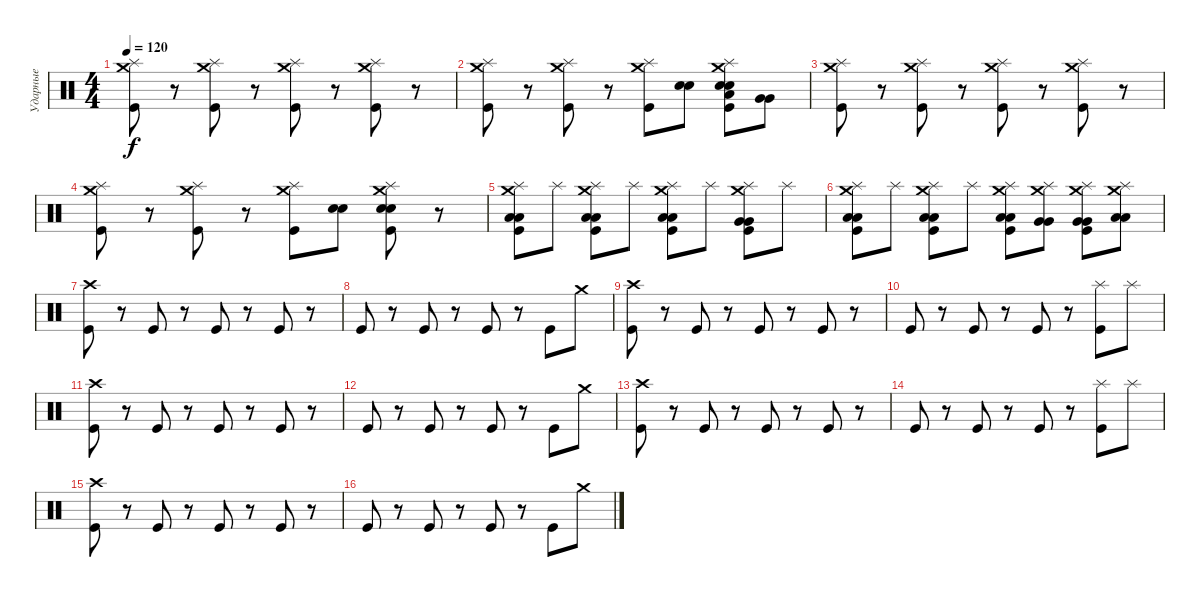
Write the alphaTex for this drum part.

\track ("Ударные" "Ударные") {instrument percussion}
\staff {score}
\articulation defaults
\ts (4 4)
\tempo 120
\clef neutral
\ks c
("Crash medium (hit)" "Splash (hit)" "Kick (hit)").8{dy f} r.8 ("Crash medium (hit)" "Splash (hit)" "Kick (hit)").8 r.8 ("Crash medium (hit)" "Splash (hit)" "Kick (hit)").8 r.8 ("Crash medium (hit)" "Splash (hit)" "Kick (hit)").8 r.8 |
("Crash medium (hit)" "Splash (hit)" "Kick (hit)").8 r.8 ("Crash medium (hit)" "Splash (hit)" "Kick (hit)").8 r.8 ("Crash medium (hit)" "Splash (hit)" "Kick (hit)").8 ("Snare (hit) 2" "Snare (hit) 2").8 ("Crash medium (hit)" "Splash (hit)" "Electric Snare (hit)" "Electric Snare (hit)" "Low Floor Tom (hit)" "Kick (hit)").8 ("Very Low Tom (hit)" "Very Low Tom (hit)").8 |
("Crash medium (hit)" "Splash (hit)" "Kick (hit)").8 r.8 ("Crash medium (hit)" "Splash (hit)" "Kick (hit)").8 r.8 ("Crash medium (hit)" "Splash (hit)" "Kick (hit)").8 r.8 ("Crash medium (hit)" "Splash (hit)" "Kick (hit)").8 r.8 |
("Crash medium (hit)" "Splash (hit)" "Kick (hit)").8 r.8 ("Crash medium (hit)" "Splash (hit)" "Kick (hit)").8 r.8 ("Crash medium (hit)" "Splash (hit)" "Kick (hit)").8 ("Snare (hit) 2" "Snare (hit) 2").8 ("Crash medium (hit)" "Splash (hit)" "Electric Snare (hit)" "Electric Snare (hit)" "Kick (hit)").8 r.8 |
("Splash (hit)" "Crash medium (hit)" "Low Floor Tom (hit)" "Low Floor Tom (hit)" "Kick (hit)").8 "Splash (hit)".8 ("Splash (hit)" "Crash medium (hit)" "Low Floor Tom (hit)" "Low Floor Tom (hit)" "Kick (hit)").8 "Splash (hit)".8 ("Splash (hit)" "Crash medium (hit)" "Low Floor Tom (hit)" "Low Floor Tom (hit)" "Kick (hit)").8 "Splash (hit)".8 ("Splash (hit)" "Crash medium (hit)" "Very Low Tom (hit)" "Very Low Tom (hit)" "Kick (hit)").8 "Splash (hit)".8 |
("Splash (hit)" "Crash medium (hit)" "Low Floor Tom (hit)" "Low Floor Tom (hit)" "Kick (hit)").8 "Splash (hit)".8 ("Splash (hit)" "Crash medium (hit)" "Low Floor Tom (hit)" "Low Floor Tom (hit)" "Kick (hit)").8 "Splash (hit)".8 ("Splash (hit)" "Crash medium (hit)" "Low Floor Tom (hit)" "Low Floor Tom (hit)" "Kick (hit)").8 ("Splash (hit)" "Crash medium (hit)" "Very Low Tom (hit)" "Very Low Tom (hit)").8 ("Splash (hit)" "Crash medium (hit)" "Very Low Tom (hit)" "Very Low Tom (hit)" "Kick (hit)").8 ("Splash (hit)" "Crash medium (hit)" "Low Floor Tom (hit)" "Low Floor Tom (hit)").8 |
("Crash high (hit)" "Kick (hit)").8 r.8 "Kick (hit)".8 r.8 "Kick (hit)".8 r.8 "Kick (hit)".8 r.8 |
"Kick (hit)".8 r.8 "Kick (hit)".8 r.8 "Kick (hit)".8 r.8 "Kick (hit)".8 "Crash medium (hit)".8 |
("Crash high (hit)" "Kick (hit)").8 r.8 "Kick (hit)".8 r.8 "Kick (hit)".8 r.8 "Kick (hit)".8 r.8 |
"Kick (hit)".8 r.8 "Kick (hit)".8 r.8 "Kick (hit)".8 r.8 ("Splash (hit)" "Kick (hit)").8 "Splash (hit)".8 |
("Crash high (hit)" "Kick (hit)").8 r.8 "Kick (hit)".8 r.8 "Kick (hit)".8 r.8 "Kick (hit)".8 r.8 |
"Kick (hit)".8 r.8 "Kick (hit)".8 r.8 "Kick (hit)".8 r.8 "Kick (hit)".8 "Crash medium (hit)".8 |
("Crash high (hit)" "Kick (hit)").8 r.8 "Kick (hit)".8 r.8 "Kick (hit)".8 r.8 "Kick (hit)".8 r.8 |
"Kick (hit)".8 r.8 "Kick (hit)".8 r.8 "Kick (hit)".8 r.8 ("Splash (hit)" "Kick (hit)").8 "Splash (hit)".8 |
("Crash high (hit)" "Kick (hit)").8 r.8 "Kick (hit)".8 r.8 "Kick (hit)".8 r.8 "Kick (hit)".8 r.8 |
"Kick (hit)".8 r.8 "Kick (hit)".8 r.8 "Kick (hit)".8 r.8 "Kick (hit)".8 "Crash medium (hit)".8
